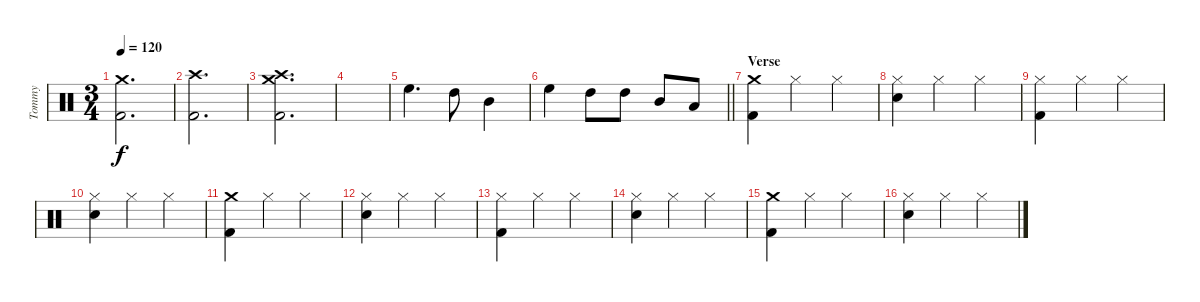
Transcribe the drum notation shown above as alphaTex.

\track ("Tommy" "Tommy") {instrument percussion}
\staff {score}
\articulation defaults
\ts (3 4)
\tempo 120
\clef neutral
\ks c
("Crash medium (hit)" "Kick (hit) 2").2{d dy f} |
("Crash high (hit)" "Kick (hit) 2").2{d} |
("Crash high (hit)" "Crash medium (hit)" "Kick (hit) 2").2{d} |
|
"High Floor Tom (hit)".4{d} "High Tom (hit)".8 "Mid Tom (hit)".4 |
\barLineRight lightlight "High Floor Tom (hit)".4 "High Tom (hit)".8 "High Tom (hit)".8 "Mid Tom (hit)".8 "Low Tom (hit)".8
|
\section ("" "Verse")
("Crash medium (hit)" "Kick (hit) 2").4 "Hi-Hat (closed)".4 "Hi-Hat (closed)".4 |
("Hi-Hat (closed)" "Electric Snare (hit)").4 "Hi-Hat (closed)".4 "Hi-Hat (closed)".4 |
("Hi-Hat (closed)" "Kick (hit) 2").4 "Hi-Hat (closed)".4 "Hi-Hat (closed)".4 |
("Hi-Hat (closed)" "Electric Snare (hit)").4 "Hi-Hat (closed)".4 "Hi-Hat (closed)".4 |
("Crash medium (hit)" "Kick (hit) 2").4 "Hi-Hat (closed)".4 "Hi-Hat (closed)".4 |
("Hi-Hat (closed)" "Electric Snare (hit)").4 "Hi-Hat (closed)".4 "Hi-Hat (closed)".4 |
("Hi-Hat (closed)" "Kick (hit) 2").4 "Hi-Hat (closed)".4 "Hi-Hat (closed)".4 |
("Hi-Hat (closed)" "Electric Snare (hit)").4 "Hi-Hat (closed)".4 "Hi-Hat (closed)".4 |
("Crash medium (hit)" "Kick (hit) 2").4 "Hi-Hat (closed)".4 "Hi-Hat (closed)".4 |
("Hi-Hat (closed)" "Electric Snare (hit)").4 "Hi-Hat (closed)".4 "Hi-Hat (closed)".4
